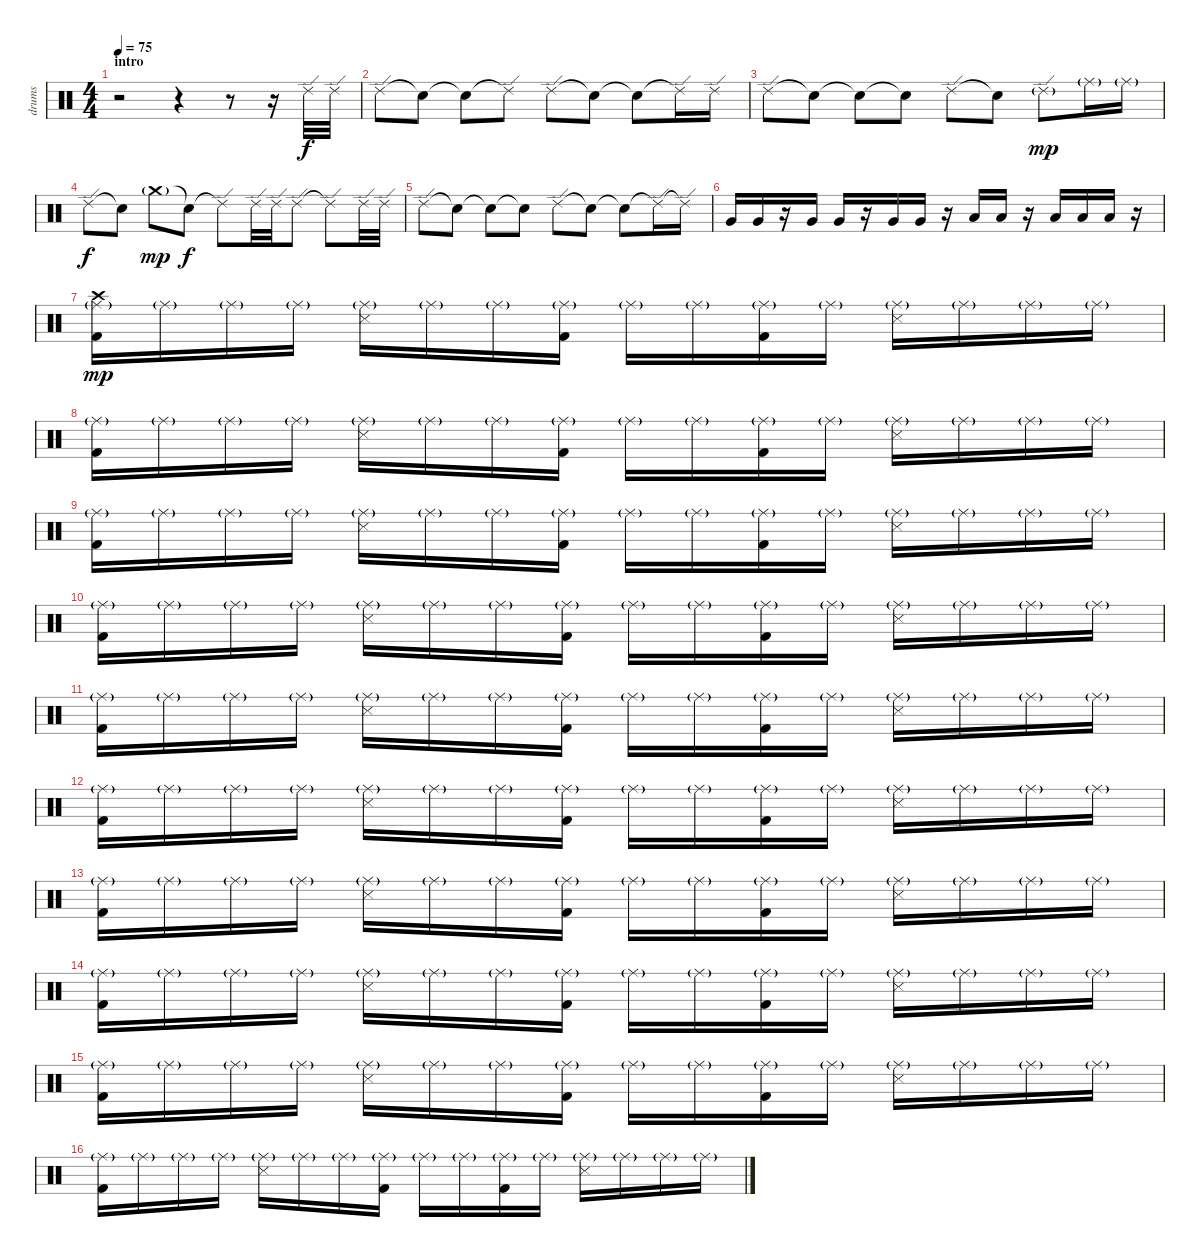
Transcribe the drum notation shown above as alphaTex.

\track ("drums" "drums") {instrument percussion}
\staff {score}
\articulation defaults
\ts (4 4)
\section ("" "intro")
\tempo 75
\clef neutral
\ks c
r.2{dy f} r.4 r.8 r.16 "Ride (edge) 2".32 "Ride (edge) 2".32 |
"Ride (edge) 2".8 "Snare (hit)"{t}.8 "Snare (hit)"{t}.8 "Ride (edge) 2"{t}.8 "Ride (edge) 2".8 "Snare (hit)"{t}.8 "Snare (hit)"{t}.8 "Ride (edge) 2"{t}.16 "Ride (edge) 2".16 |
"Ride (edge) 2".8 "Snare (hit)"{t}.8 "Snare (hit)"{t}.8 "Snare (hit)"{t}.8 "Ride (edge) 2".8 "Snare (hit)"{t}.8 "Ride (edge) 2"{g}.8{dy mp} "Ride (middle)"{g}.16 "Ride (middle)"{g}.16 |
"Ride (edge) 2".8{dy f} "Snare (hit)"{t}.8 "Crash medium (hit)"{g}.8{dy mp} "Snare (hit)"{t}.8{dy f} "Ride (edge) 2"{t}.8 "Ride (edge) 2".32 "Ride (edge) 2".32 "Ride (edge) 2".8 "Ride (edge) 2"{t}.8 "Ride (edge) 2".32 "Ride (edge) 2".32 |
"Ride (edge) 2".8 "Snare (hit)"{t}.8 "Snare (hit)"{t}.8 "Snare (hit)"{t}.8 "Ride (edge) 2".8 "Snare (hit)"{t}.8 "Snare (hit)"{t}.8 "Ride (edge) 2"{t}.16 "Ride (edge) 2"{t}.16 |
"Very Low Tom (hit)".16{volume 16} "Very Low Tom (hit)".16 r.16 "Very Low Tom (hit)".16 "Very Low Tom (hit)".16 r.16 "Very Low Tom (hit)".16 "Very Low Tom (hit)".16 r.16 "Low Floor Tom (hit)".16 "Low Floor Tom (hit)".16 r.16 "Low Floor Tom (hit)".16 "Low Floor Tom (hit)".16 "Low Floor Tom (hit)".16 r.16 |
("Kick (hit) 2" "Ride (middle)"{g} "Crash high (hit)").16{dy mp} "Ride (middle)"{g}.16 "Ride (middle)"{g}.16 "Ride (middle)"{g}.16 ("Snare (side stick) 3" "Ride (middle)"{g}).16 "Ride (middle)"{g}.16 "Ride (middle)"{g}.16 ("Kick (hit) 2" "Ride (middle)"{g}).16 "Ride (middle)"{g}.16 "Ride (middle)"{g}.16 ("Kick (hit) 2" "Ride (middle)"{g}).16 "Ride (middle)"{g}.16 ("Snare (side stick) 3" "Ride (middle)"{g}).16 "Ride (middle)"{g}.16 "Ride (middle)"{g}.16 "Ride (middle)"{g}.16 |
("Kick (hit) 2" "Ride (middle)"{g}).16 "Ride (middle)"{g}.16 "Ride (middle)"{g}.16 "Ride (middle)"{g}.16 ("Snare (side stick) 3" "Ride (middle)"{g}).16 "Ride (middle)"{g}.16 "Ride (middle)"{g}.16 ("Kick (hit) 2" "Ride (middle)"{g}).16 "Ride (middle)"{g}.16 "Ride (middle)"{g}.16 ("Kick (hit) 2" "Ride (middle)"{g}).16 "Ride (middle)"{g}.16 ("Snare (side stick) 3" "Ride (middle)"{g}).16 "Ride (middle)"{g}.16 "Ride (middle)"{g}.16 "Ride (middle)"{g}.16 |
("Kick (hit) 2" "Ride (middle)"{g}).16 "Ride (middle)"{g}.16 "Ride (middle)"{g}.16 "Ride (middle)"{g}.16 ("Snare (side stick) 3" "Ride (middle)"{g}).16 "Ride (middle)"{g}.16 "Ride (middle)"{g}.16 ("Kick (hit) 2" "Ride (middle)"{g}).16 "Ride (middle)"{g}.16 "Ride (middle)"{g}.16 ("Kick (hit) 2" "Ride (middle)"{g}).16 "Ride (middle)"{g}.16 ("Snare (side stick) 3" "Ride (middle)"{g}).16 "Ride (middle)"{g}.16 "Ride (middle)"{g}.16 "Ride (middle)"{g}.16 |
("Kick (hit) 2" "Ride (middle)"{g}).16 "Ride (middle)"{g}.16 "Ride (middle)"{g}.16 "Ride (middle)"{g}.16 ("Snare (side stick) 3" "Ride (middle)"{g}).16 "Ride (middle)"{g}.16 "Ride (middle)"{g}.16 ("Kick (hit) 2" "Ride (middle)"{g}).16 "Ride (middle)"{g}.16 "Ride (middle)"{g}.16 ("Kick (hit) 2" "Ride (middle)"{g}).16 "Ride (middle)"{g}.16 ("Snare (side stick) 3" "Ride (middle)"{g}).16 "Ride (middle)"{g}.16 "Ride (middle)"{g}.16 "Ride (middle)"{g}.16 |
("Kick (hit) 2" "Ride (middle)"{g}).16 "Ride (middle)"{g}.16 "Ride (middle)"{g}.16 "Ride (middle)"{g}.16 ("Snare (side stick) 3" "Ride (middle)"{g}).16 "Ride (middle)"{g}.16 "Ride (middle)"{g}.16 ("Kick (hit) 2" "Ride (middle)"{g}).16 "Ride (middle)"{g}.16 "Ride (middle)"{g}.16 ("Kick (hit) 2" "Ride (middle)"{g}).16 "Ride (middle)"{g}.16 ("Snare (side stick) 3" "Ride (middle)"{g}).16 "Ride (middle)"{g}.16 "Ride (middle)"{g}.16 "Ride (middle)"{g}.16 |
("Kick (hit) 2" "Ride (middle)"{g}).16 "Ride (middle)"{g}.16 "Ride (middle)"{g}.16 "Ride (middle)"{g}.16 ("Snare (side stick) 3" "Ride (middle)"{g}).16 "Ride (middle)"{g}.16 "Ride (middle)"{g}.16 ("Kick (hit) 2" "Ride (middle)"{g}).16 "Ride (middle)"{g}.16 "Ride (middle)"{g}.16 ("Kick (hit) 2" "Ride (middle)"{g}).16 "Ride (middle)"{g}.16 ("Snare (side stick) 3" "Ride (middle)"{g}).16 "Ride (middle)"{g}.16 "Ride (middle)"{g}.16 "Ride (middle)"{g}.16 |
("Kick (hit) 2" "Ride (middle)"{g}).16 "Ride (middle)"{g}.16 "Ride (middle)"{g}.16 "Ride (middle)"{g}.16 ("Snare (side stick) 3" "Ride (middle)"{g}).16 "Ride (middle)"{g}.16 "Ride (middle)"{g}.16 ("Kick (hit) 2" "Ride (middle)"{g}).16 "Ride (middle)"{g}.16 "Ride (middle)"{g}.16 ("Kick (hit) 2" "Ride (middle)"{g}).16 "Ride (middle)"{g}.16 ("Snare (side stick) 3" "Ride (middle)"{g}).16 "Ride (middle)"{g}.16 "Ride (middle)"{g}.16 "Ride (middle)"{g}.16 |
("Kick (hit) 2" "Ride (middle)"{g}).16 "Ride (middle)"{g}.16 "Ride (middle)"{g}.16 "Ride (middle)"{g}.16 ("Snare (side stick) 3" "Ride (middle)"{g}).16 "Ride (middle)"{g}.16 "Ride (middle)"{g}.16 ("Kick (hit) 2" "Ride (middle)"{g}).16 "Ride (middle)"{g}.16 "Ride (middle)"{g}.16 ("Kick (hit) 2" "Ride (middle)"{g}).16 "Ride (middle)"{g}.16 ("Snare (side stick) 3" "Ride (middle)"{g}).16 "Ride (middle)"{g}.16 "Ride (middle)"{g}.16 "Ride (middle)"{g}.16 |
("Kick (hit) 2" "Ride (middle)"{g}).16 "Ride (middle)"{g}.16 "Ride (middle)"{g}.16 "Ride (middle)"{g}.16 ("Snare (side stick) 3" "Ride (middle)"{g}).16 "Ride (middle)"{g}.16 "Ride (middle)"{g}.16 ("Kick (hit) 2" "Ride (middle)"{g}).16 "Ride (middle)"{g}.16 "Ride (middle)"{g}.16 ("Kick (hit) 2" "Ride (middle)"{g}).16 "Ride (middle)"{g}.16 ("Snare (side stick) 3" "Ride (middle)"{g}).16 "Ride (middle)"{g}.16 "Ride (middle)"{g}.16 "Ride (middle)"{g}.16 |
("Kick (hit) 2" "Ride (middle)"{g}).16 "Ride (middle)"{g}.16 "Ride (middle)"{g}.16 "Ride (middle)"{g}.16 ("Snare (side stick) 3" "Ride (middle)"{g}).16 "Ride (middle)"{g}.16 "Ride (middle)"{g}.16 ("Kick (hit) 2" "Ride (middle)"{g}).16 "Ride (middle)"{g}.16 "Ride (middle)"{g}.16 ("Kick (hit) 2" "Ride (middle)"{g}).16 "Ride (middle)"{g}.16 ("Snare (side stick) 3" "Ride (middle)"{g}).16 "Ride (middle)"{g}.16 "Ride (middle)"{g}.16 "Ride (middle)"{g}.16
